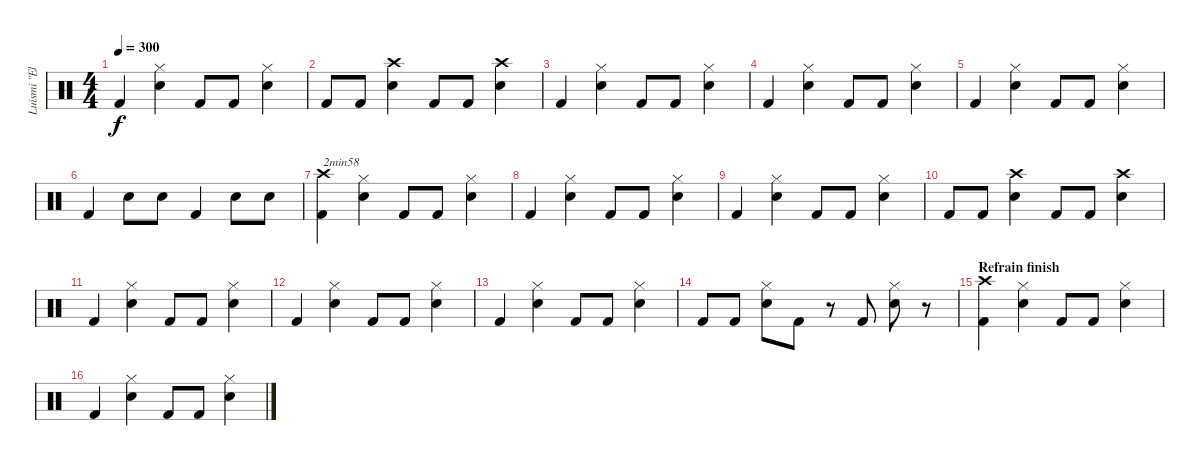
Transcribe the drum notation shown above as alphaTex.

\track ("Luismi \"El Papi\"" "Luismi \"El") {instrument percussion}
\staff {score}
\articulation defaults
\ts (4 4)
\tempo 300
\clef neutral
\ks c "Kick (hit) 2".4{dy f}
("Hi-Hat (closed)" "Snare (hit) 2").4 "Kick (hit) 2".8 "Kick (hit) 2".8 ("Hi-Hat (closed)" "Snare (hit) 2").4 |
"Kick (hit) 2".8 "Kick (hit) 2".8 ("Crash high (hit)" "Snare (hit) 2").4 "Kick (hit) 2".8 "Kick (hit) 2".8 ("Crash high (hit)" "Snare (hit) 2").4 |
"Kick (hit) 2".4 ("Hi-Hat (closed)" "Snare (hit) 2").4 "Kick (hit) 2".8 "Kick (hit) 2".8 ("Hi-Hat (closed)" "Snare (hit) 2").4 |
"Kick (hit) 2".4 ("Hi-Hat (closed)" "Snare (hit) 2").4 "Kick (hit) 2".8 "Kick (hit) 2".8 ("Hi-Hat (closed)" "Snare (hit) 2").4 |
"Kick (hit) 2".4 ("Hi-Hat (closed)" "Snare (hit) 2").4 "Kick (hit) 2".8 "Kick (hit) 2".8 ("Hi-Hat (closed)" "Snare (hit) 2").4 |
"Kick (hit) 2".4 "Snare (hit) 2".8 "Snare (hit) 2".8 "Kick (hit) 2".4 "Snare (hit) 2".8 "Snare (hit) 2".8 |
("Crash high (hit)" "Kick (hit) 2").4{txt "2min58"} ("Hi-Hat (closed)" "Snare (hit) 2").4 "Kick (hit) 2".8 "Kick (hit) 2".8 ("Hi-Hat (closed)" "Snare (hit) 2").4 |
"Kick (hit) 2".4 ("Hi-Hat (closed)" "Snare (hit) 2").4 "Kick (hit) 2".8 "Kick (hit) 2".8 ("Hi-Hat (closed)" "Snare (hit) 2").4 |
"Kick (hit) 2".4 ("Hi-Hat (closed)" "Snare (hit) 2").4 "Kick (hit) 2".8 "Kick (hit) 2".8 ("Hi-Hat (closed)" "Snare (hit) 2").4 |
"Kick (hit) 2".8 "Kick (hit) 2".8 ("Crash high (hit)" "Snare (hit) 2").4 "Kick (hit) 2".8 "Kick (hit) 2".8 ("Crash high (hit)" "Snare (hit) 2").4 |
"Kick (hit) 2".4 ("Hi-Hat (closed)" "Snare (hit) 2").4 "Kick (hit) 2".8 "Kick (hit) 2".8 ("Hi-Hat (closed)" "Snare (hit) 2").4 |
"Kick (hit) 2".4 ("Hi-Hat (closed)" "Snare (hit) 2").4 "Kick (hit) 2".8 "Kick (hit) 2".8 ("Hi-Hat (closed)" "Snare (hit) 2").4 |
"Kick (hit) 2".4 ("Hi-Hat (closed)" "Snare (hit) 2").4 "Kick (hit) 2".8 "Kick (hit) 2".8 ("Hi-Hat (closed)" "Snare (hit) 2").4 |
"Kick (hit) 2".8 "Kick (hit) 2".8 ("Hi-Hat (closed)" "Snare (hit) 2").8 "Kick (hit) 2".8 r.8 "Kick (hit) 2".8 ("Hi-Hat (closed)" "Snare (hit) 2").8 r.8 |
\section ("" "Refrain finish")
("Crash high (hit)" "Kick (hit) 2").4 ("Hi-Hat (closed)" "Snare (hit) 2").4 "Kick (hit) 2".8 "Kick (hit) 2".8 ("Hi-Hat (closed)" "Snare (hit) 2").4 |
"Kick (hit) 2".4 ("Hi-Hat (closed)" "Snare (hit) 2").4 "Kick (hit) 2".8 "Kick (hit) 2".8 ("Hi-Hat (closed)" "Snare (hit) 2").4
